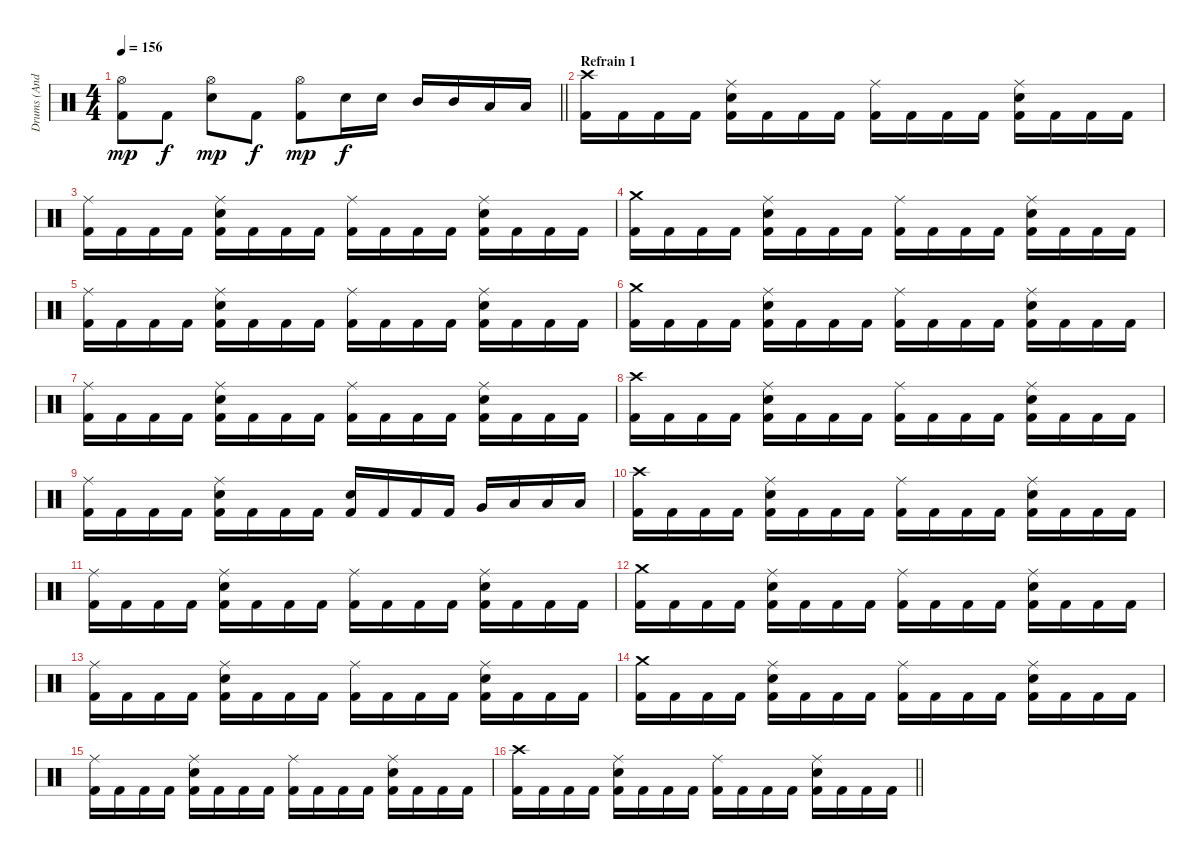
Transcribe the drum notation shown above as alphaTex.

\track ("Drums (Andy C)" "Drums (And") {instrument percussion}
\staff
\articulation defaults
\ts (4 4)
\tempo 156
\clef neutral
\barLineRight lightlight
\ks c
("Hi-Hat (open)" "Kick (hit) 2").8{dy mp} "Kick (hit) 2".8{dy f} ("Hi-Hat (open)" "Electric Snare (hit)").8{dy mp} "Kick (hit) 2".8{dy f} ("Hi-Hat (open)" "Kick (hit) 2").8{dy mp} "Electric Snare (hit)".16{dy f} "Electric Snare (hit)".16 "Mid Tom (hit)".16 "Mid Tom (hit)".16 "Low Tom (hit)".16 "Low Tom (hit)".16 |
\section ("" "Refrain 1")
("Crash high (hit)" "Kick (hit) 2").16 "Kick (hit) 2".16 "Kick (hit) 2".16 "Kick (hit) 2".16 ("Ride (middle)" "Kick (hit) 2" "Electric Snare (hit)").16 "Kick (hit) 2".16 "Kick (hit) 2".16 "Kick (hit) 2".16 ("Ride (middle)" "Kick (hit) 2").16 "Kick (hit) 2".16 "Kick (hit) 2".16 "Kick (hit) 2".16 ("Ride (middle)" "Kick (hit) 2" "Electric Snare (hit)").16 "Kick (hit) 2".16 "Kick (hit) 2".16 "Kick (hit) 2".16 |
("Ride (middle)" "Kick (hit) 2").16 "Kick (hit) 2".16 "Kick (hit) 2".16 "Kick (hit) 2".16 ("Ride (middle)" "Kick (hit) 2" "Electric Snare (hit)").16 "Kick (hit) 2".16 "Kick (hit) 2".16 "Kick (hit) 2".16 ("Ride (middle)" "Kick (hit) 2").16 "Kick (hit) 2".16 "Kick (hit) 2".16 "Kick (hit) 2".16 ("Ride (middle)" "Kick (hit) 2" "Electric Snare (hit)").16 "Kick (hit) 2".16 "Kick (hit) 2".16 "Kick (hit) 2".16 |
("Crash medium (hit)" "Kick (hit) 2").16 "Kick (hit) 2".16 "Kick (hit) 2".16 "Kick (hit) 2".16 ("Ride (middle)" "Kick (hit) 2" "Electric Snare (hit)").16 "Kick (hit) 2".16 "Kick (hit) 2".16 "Kick (hit) 2".16 ("Ride (middle)" "Kick (hit) 2").16 "Kick (hit) 2".16 "Kick (hit) 2".16 "Kick (hit) 2".16 ("Ride (middle)" "Kick (hit) 2" "Electric Snare (hit)").16 "Kick (hit) 2".16 "Kick (hit) 2".16 "Kick (hit) 2".16 |
("Ride (middle)" "Kick (hit) 2").16 "Kick (hit) 2".16 "Kick (hit) 2".16 "Kick (hit) 2".16 ("Ride (middle)" "Kick (hit) 2" "Electric Snare (hit)").16 "Kick (hit) 2".16 "Kick (hit) 2".16 "Kick (hit) 2".16 ("Ride (middle)" "Kick (hit) 2").16 "Kick (hit) 2".16 "Kick (hit) 2".16 "Kick (hit) 2".16 ("Ride (middle)" "Kick (hit) 2" "Electric Snare (hit)").16 "Kick (hit) 2".16 "Kick (hit) 2".16 "Kick (hit) 2".16 |
("Crash medium (hit)" "Kick (hit) 2").16 "Kick (hit) 2".16 "Kick (hit) 2".16 "Kick (hit) 2".16 ("Ride (middle)" "Kick (hit) 2" "Electric Snare (hit)").16 "Kick (hit) 2".16 "Kick (hit) 2".16 "Kick (hit) 2".16 ("Ride (middle)" "Kick (hit) 2").16 "Kick (hit) 2".16 "Kick (hit) 2".16 "Kick (hit) 2".16 ("Ride (middle)" "Kick (hit) 2" "Electric Snare (hit)").16 "Kick (hit) 2".16 "Kick (hit) 2".16 "Kick (hit) 2".16 |
("Ride (middle)" "Kick (hit) 2").16 "Kick (hit) 2".16 "Kick (hit) 2".16 "Kick (hit) 2".16 ("Ride (middle)" "Kick (hit) 2" "Electric Snare (hit)").16 "Kick (hit) 2".16 "Kick (hit) 2".16 "Kick (hit) 2".16 ("Ride (middle)" "Kick (hit) 2").16 "Kick (hit) 2".16 "Kick (hit) 2".16 "Kick (hit) 2".16 ("Ride (middle)" "Kick (hit) 2" "Electric Snare (hit)").16 "Kick (hit) 2".16 "Kick (hit) 2".16 "Kick (hit) 2".16 |
("Crash high (hit)" "Kick (hit) 2").16 "Kick (hit) 2".16 "Kick (hit) 2".16 "Kick (hit) 2".16 ("Ride (middle)" "Kick (hit) 2" "Electric Snare (hit)").16 "Kick (hit) 2".16 "Kick (hit) 2".16 "Kick (hit) 2".16 ("Ride (middle)" "Kick (hit) 2").16 "Kick (hit) 2".16 "Kick (hit) 2".16 "Kick (hit) 2".16 ("Ride (middle)" "Kick (hit) 2" "Electric Snare (hit)").16 "Kick (hit) 2".16 "Kick (hit) 2".16 "Kick (hit) 2".16 |
("Ride (middle)" "Kick (hit) 2").16 "Kick (hit) 2".16 "Kick (hit) 2".16 "Kick (hit) 2".16 ("Ride (middle)" "Kick (hit) 2" "Electric Snare (hit)").16 "Kick (hit) 2".16 "Kick (hit) 2".16 "Kick (hit) 2".16 ("Kick (hit) 2" "Electric Snare (hit)").16 "Kick (hit) 2".16 "Kick (hit) 2".16 "Kick (hit) 2".16 "Very Low Tom (hit)".16 "Low Floor Tom (hit)".16 "Low Floor Tom (hit)".16 "Low Floor Tom (hit)".16 |
("Crash high (hit)" "Kick (hit) 2").16 "Kick (hit) 2".16 "Kick (hit) 2".16 "Kick (hit) 2".16 ("Ride (middle)" "Kick (hit) 2" "Electric Snare (hit)").16 "Kick (hit) 2".16 "Kick (hit) 2".16 "Kick (hit) 2".16 ("Ride (middle)" "Kick (hit) 2").16 "Kick (hit) 2".16 "Kick (hit) 2".16 "Kick (hit) 2".16 ("Ride (middle)" "Kick (hit) 2" "Electric Snare (hit)").16 "Kick (hit) 2".16 "Kick (hit) 2".16 "Kick (hit) 2".16 |
("Ride (middle)" "Kick (hit) 2").16 "Kick (hit) 2".16 "Kick (hit) 2".16 "Kick (hit) 2".16 ("Ride (middle)" "Kick (hit) 2" "Electric Snare (hit)").16 "Kick (hit) 2".16 "Kick (hit) 2".16 "Kick (hit) 2".16 ("Ride (middle)" "Kick (hit) 2").16 "Kick (hit) 2".16 "Kick (hit) 2".16 "Kick (hit) 2".16 ("Ride (middle)" "Kick (hit) 2" "Electric Snare (hit)").16 "Kick (hit) 2".16 "Kick (hit) 2".16 "Kick (hit) 2".16 |
("Crash medium (hit)" "Kick (hit) 2").16 "Kick (hit) 2".16 "Kick (hit) 2".16 "Kick (hit) 2".16 ("Ride (middle)" "Kick (hit) 2" "Electric Snare (hit)").16 "Kick (hit) 2".16 "Kick (hit) 2".16 "Kick (hit) 2".16 ("Ride (middle)" "Kick (hit) 2").16 "Kick (hit) 2".16 "Kick (hit) 2".16 "Kick (hit) 2".16 ("Ride (middle)" "Kick (hit) 2" "Electric Snare (hit)").16 "Kick (hit) 2".16 "Kick (hit) 2".16 "Kick (hit) 2".16 |
("Ride (middle)" "Kick (hit) 2").16 "Kick (hit) 2".16 "Kick (hit) 2".16 "Kick (hit) 2".16 ("Ride (middle)" "Kick (hit) 2" "Electric Snare (hit)").16 "Kick (hit) 2".16 "Kick (hit) 2".16 "Kick (hit) 2".16 ("Ride (middle)" "Kick (hit) 2").16 "Kick (hit) 2".16 "Kick (hit) 2".16 "Kick (hit) 2".16 ("Ride (middle)" "Kick (hit) 2" "Electric Snare (hit)").16 "Kick (hit) 2".16 "Kick (hit) 2".16 "Kick (hit) 2".16 |
("Crash medium (hit)" "Kick (hit) 2").16 "Kick (hit) 2".16 "Kick (hit) 2".16 "Kick (hit) 2".16 ("Ride (middle)" "Kick (hit) 2" "Electric Snare (hit)").16 "Kick (hit) 2".16 "Kick (hit) 2".16 "Kick (hit) 2".16 ("Ride (middle)" "Kick (hit) 2").16 "Kick (hit) 2".16 "Kick (hit) 2".16 "Kick (hit) 2".16 ("Ride (middle)" "Kick (hit) 2" "Electric Snare (hit)").16 "Kick (hit) 2".16 "Kick (hit) 2".16 "Kick (hit) 2".16 |
("Ride (middle)" "Kick (hit) 2").16 "Kick (hit) 2".16 "Kick (hit) 2".16 "Kick (hit) 2".16 ("Ride (middle)" "Kick (hit) 2" "Electric Snare (hit)").16 "Kick (hit) 2".16 "Kick (hit) 2".16 "Kick (hit) 2".16 ("Ride (middle)" "Kick (hit) 2").16 "Kick (hit) 2".16 "Kick (hit) 2".16 "Kick (hit) 2".16 ("Ride (middle)" "Kick (hit) 2" "Electric Snare (hit)").16 "Kick (hit) 2".16 "Kick (hit) 2".16 "Kick (hit) 2".16 |
\barLineRight lightlight
("Crash high (hit)" "Kick (hit) 2").16 "Kick (hit) 2".16 "Kick (hit) 2".16 "Kick (hit) 2".16 ("Ride (middle)" "Kick (hit) 2" "Electric Snare (hit)").16 "Kick (hit) 2".16 "Kick (hit) 2".16 "Kick (hit) 2".16 ("Ride (middle)" "Kick (hit) 2").16 "Kick (hit) 2".16 "Kick (hit) 2".16 "Kick (hit) 2".16 ("Ride (middle)" "Kick (hit) 2" "Electric Snare (hit)").16 "Kick (hit) 2".16 "Kick (hit) 2".16 "Kick (hit) 2".16
